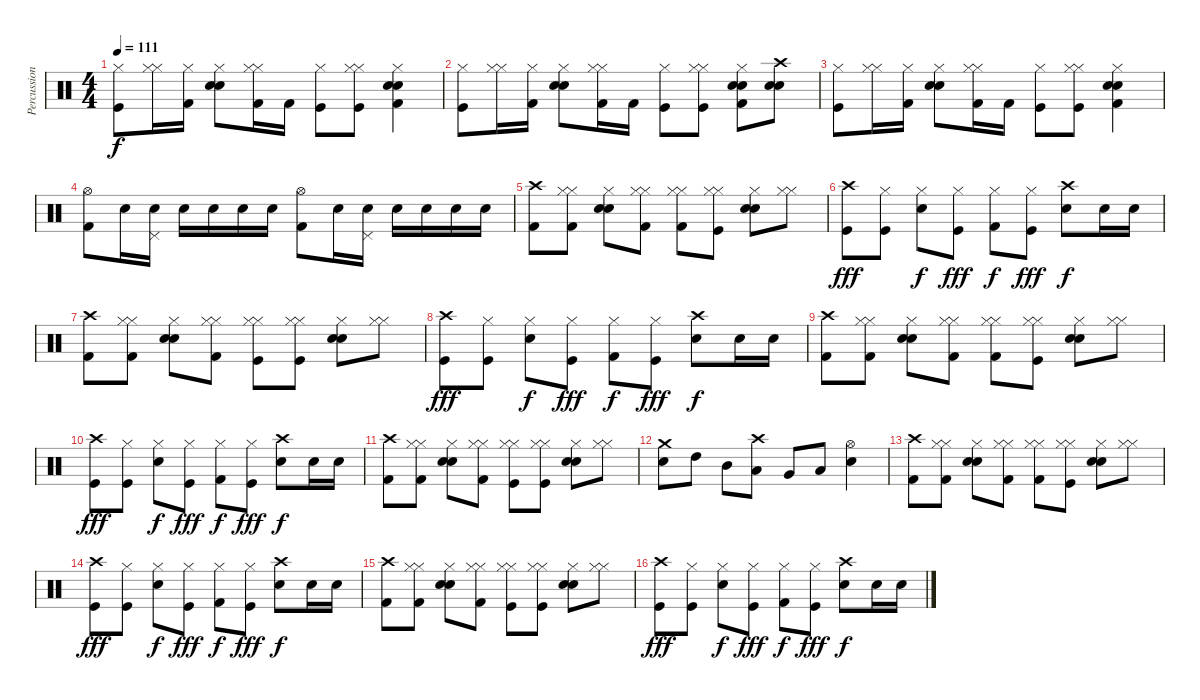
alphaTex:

\track ("Percussion" "Percussion") {instrument percussion}
\staff {score}
\articulation defaults
\ts (4 4)
\tempo 111
\clef neutral
\ks c
("Hi-Hat (closed)" "Kick (hit)").8{dy f} ("Hi-Hat (closed)" "Hi-Hat (closed)").16 ("Hi-Hat (closed)" "Kick (hit) 2").16 ("Hi-Hat (closed)" "Snare (hit) 2" "Electric Snare (hit)").8 ("Hi-Hat (closed)" "Hi-Hat (closed)" "Kick (hit) 2").16 "Kick (hit) 2".16 ("Hi-Hat (closed)" "Kick (hit)").8 ("Hi-Hat (closed)" "Hi-Hat (closed)" "Kick (hit)").8 ("Hi-Hat (closed)" "Snare (hit) 2" "Electric Snare (hit)" "Kick (hit) 2").4 |
("Hi-Hat (closed)" "Kick (hit)").8 ("Hi-Hat (closed)" "Hi-Hat (closed)").16 ("Hi-Hat (closed)" "Kick (hit) 2").16 ("Hi-Hat (closed)" "Snare (hit) 2" "Electric Snare (hit)").8 ("Hi-Hat (closed)" "Hi-Hat (closed)" "Kick (hit) 2").16 "Kick (hit) 2".16 ("Hi-Hat (closed)" "Kick (hit)").8 ("Hi-Hat (closed)" "Hi-Hat (closed)" "Kick (hit)").8 ("Hi-Hat (closed)" "Snare (hit) 2" "Electric Snare (hit)" "Kick (hit) 2").8 ("Crash high (hit)" "Snare (hit) 2" "Electric Snare (hit)").8 |
("Hi-Hat (closed)" "Kick (hit)").8 ("Hi-Hat (closed)" "Hi-Hat (closed)").16 ("Hi-Hat (closed)" "Kick (hit) 2").16 ("Hi-Hat (closed)" "Snare (hit) 2" "Electric Snare (hit)").8 ("Hi-Hat (closed)" "Hi-Hat (closed)" "Kick (hit) 2").16 "Kick (hit) 2".16 ("Hi-Hat (closed)" "Kick (hit)").8 ("Hi-Hat (closed)" "Hi-Hat (closed)" "Kick (hit)").8 ("Hi-Hat (closed)" "Snare (hit) 2" "Electric Snare (hit)" "Kick (hit) 2").4 |
("Kick (hit) 2" "Hi-Hat (open)").8 "Electric Snare (hit)".16 ("Electric Snare (hit)" "Pedal Hi-Hat (hit)").16 "Electric Snare (hit)".16 "Electric Snare (hit)".16 "Electric Snare (hit)".16 "Electric Snare (hit)".16 ("Kick (hit) 2" "Hi-Hat (open)").8 "Electric Snare (hit)".16 ("Electric Snare (hit)" "Pedal Hi-Hat (hit)").16 "Electric Snare (hit)".16 "Electric Snare (hit)".16 "Electric Snare (hit)".16 "Electric Snare (hit)".16 |
("Crash high (hit)" "Kick (hit) 2").8 ("Hi-Hat (closed)" "Hi-Hat (closed)" "Kick (hit) 2").8 ("Hi-Hat (closed)" "Snare (hit) 2" "Electric Snare (hit)").8 ("Hi-Hat (closed)" "Hi-Hat (closed)" "Kick (hit) 2").8 ("Hi-Hat (closed)" "Hi-Hat (closed)" "Kick (hit) 2").8 ("Hi-Hat (closed)" "Hi-Hat (closed)" "Kick (hit)").8 ("Hi-Hat (closed)" "Snare (hit) 2" "Electric Snare (hit)").8 ("Hi-Hat (closed)" "Hi-Hat (closed)").8 |
("Crash high (hit)" "Kick (hit)").8{dy fff} ("Hi-Hat (closed)" "Kick (hit)").8 ("Hi-Hat (closed)" "Snare (hit) 2").8{dy f} ("Hi-Hat (closed)" "Kick (hit)").8{dy fff} ("Hi-Hat (closed)" "Kick (hit) 2").8{dy f} ("Hi-Hat (closed)" "Kick (hit)").8{dy fff} ("Crash high (hit)" "Snare (hit) 2").8{dy f} "Snare (hit) 2".16 "Snare (hit) 2".16 |
("Crash high (hit)" "Kick (hit) 2").8 ("Hi-Hat (closed)" "Hi-Hat (closed)" "Kick (hit) 2").8 ("Hi-Hat (closed)" "Snare (hit) 2" "Electric Snare (hit)").8 ("Hi-Hat (closed)" "Hi-Hat (closed)" "Kick (hit) 2").8 ("Hi-Hat (closed)" "Hi-Hat (closed)" "Kick (hit)").8 ("Hi-Hat (closed)" "Hi-Hat (closed)" "Kick (hit)").8 ("Hi-Hat (closed)" "Snare (hit) 2" "Electric Snare (hit)").8 ("Hi-Hat (closed)" "Hi-Hat (closed)").8 |
("Crash high (hit)" "Kick (hit)").8{dy fff} ("Hi-Hat (closed)" "Kick (hit)").8 ("Hi-Hat (closed)" "Snare (hit) 2").8{dy f} ("Hi-Hat (closed)" "Kick (hit)").8{dy fff} ("Hi-Hat (closed)" "Kick (hit) 2").8{dy f} ("Hi-Hat (closed)" "Kick (hit)").8{dy fff} ("Crash high (hit)" "Snare (hit) 2").8{dy f} "Snare (hit) 2".16 "Snare (hit) 2".16 |
("Crash high (hit)" "Kick (hit) 2").8 ("Hi-Hat (closed)" "Hi-Hat (closed)" "Kick (hit) 2").8 ("Hi-Hat (closed)" "Snare (hit) 2" "Electric Snare (hit)").8 ("Hi-Hat (closed)" "Hi-Hat (closed)" "Kick (hit) 2").8 ("Hi-Hat (closed)" "Hi-Hat (closed)" "Kick (hit) 2").8 ("Hi-Hat (closed)" "Hi-Hat (closed)" "Kick (hit)").8 ("Hi-Hat (closed)" "Snare (hit) 2" "Electric Snare (hit)").8 ("Hi-Hat (closed)" "Hi-Hat (closed)").8 |
("Crash high (hit)" "Kick (hit)").8{dy fff} ("Hi-Hat (closed)" "Kick (hit)").8 ("Hi-Hat (closed)" "Snare (hit) 2").8{dy f} ("Hi-Hat (closed)" "Kick (hit)").8{dy fff} ("Hi-Hat (closed)" "Kick (hit) 2").8{dy f} ("Hi-Hat (closed)" "Kick (hit)").8{dy fff} ("Crash high (hit)" "Snare (hit) 2").8{dy f} "Snare (hit) 2".16 "Snare (hit) 2".16 |
("Crash high (hit)" "Kick (hit) 2").8 ("Hi-Hat (closed)" "Hi-Hat (closed)" "Kick (hit) 2").8 ("Hi-Hat (closed)" "Snare (hit) 2" "Electric Snare (hit)").8 ("Hi-Hat (closed)" "Hi-Hat (closed)" "Kick (hit) 2").8 ("Hi-Hat (closed)" "Hi-Hat (closed)" "Kick (hit)").8 ("Hi-Hat (closed)" "Hi-Hat (closed)" "Kick (hit)").8 ("Hi-Hat (closed)" "Snare (hit) 2" "Electric Snare (hit)").8 ("Hi-Hat (closed)" "Hi-Hat (closed)").8 |
("Electric Snare (hit)" "Crash medium (hit)").8 "High Tom (hit)".8 "Mid Tom (hit)".8 ("Low Tom (hit)" "Crash high (hit)").8 "Very Low Tom (hit)".8 "Low Floor Tom (hit)".8 ("Electric Snare (hit)" "Hi-Hat (open)").4 |
("Crash high (hit)" "Kick (hit) 2").8 ("Hi-Hat (closed)" "Hi-Hat (closed)" "Kick (hit) 2").8 ("Hi-Hat (closed)" "Snare (hit) 2" "Electric Snare (hit)").8 ("Hi-Hat (closed)" "Hi-Hat (closed)" "Kick (hit) 2").8 ("Hi-Hat (closed)" "Hi-Hat (closed)" "Kick (hit) 2").8 ("Hi-Hat (closed)" "Hi-Hat (closed)" "Kick (hit)").8 ("Hi-Hat (closed)" "Snare (hit) 2" "Electric Snare (hit)").8 ("Hi-Hat (closed)" "Hi-Hat (closed)").8 |
("Crash high (hit)" "Kick (hit)").8{dy fff} ("Hi-Hat (closed)" "Kick (hit)").8 ("Hi-Hat (closed)" "Snare (hit) 2").8{dy f} ("Hi-Hat (closed)" "Kick (hit)").8{dy fff} ("Hi-Hat (closed)" "Kick (hit) 2").8{dy f} ("Hi-Hat (closed)" "Kick (hit)").8{dy fff} ("Crash high (hit)" "Snare (hit) 2").8{dy f} "Snare (hit) 2".16 "Snare (hit) 2".16 |
("Crash high (hit)" "Kick (hit) 2").8 ("Hi-Hat (closed)" "Hi-Hat (closed)" "Kick (hit) 2").8 ("Hi-Hat (closed)" "Snare (hit) 2" "Electric Snare (hit)").8 ("Hi-Hat (closed)" "Hi-Hat (closed)" "Kick (hit) 2").8 ("Hi-Hat (closed)" "Hi-Hat (closed)" "Kick (hit)").8 ("Hi-Hat (closed)" "Hi-Hat (closed)" "Kick (hit)").8 ("Hi-Hat (closed)" "Snare (hit) 2" "Electric Snare (hit)").8 ("Hi-Hat (closed)" "Hi-Hat (closed)").8 |
("Crash high (hit)" "Kick (hit)").8{dy fff} ("Hi-Hat (closed)" "Kick (hit)").8 ("Hi-Hat (closed)" "Snare (hit) 2").8{dy f} ("Hi-Hat (closed)" "Kick (hit)").8{dy fff} ("Hi-Hat (closed)" "Kick (hit) 2").8{dy f} ("Hi-Hat (closed)" "Kick (hit)").8{dy fff} ("Crash high (hit)" "Snare (hit) 2").8{dy f} "Snare (hit) 2".16 "Snare (hit) 2".16
